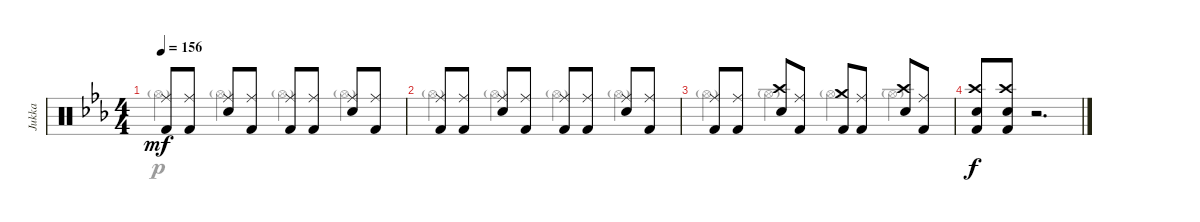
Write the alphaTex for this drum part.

\track ("Jukka" "Jukka") {instrument percussion}
\staff {score}
\articulation defaults
\voice
\ts (4 4)
\tempo 156
\clef neutral
\ks cminor
("Ride (middle)" "Kick (hit) 2").8{dy mf} ("Ride (middle)" "Kick (hit) 2").8 ("Ride (middle)" "Electric Snare (hit)").8 ("Ride (middle)" "Kick (hit) 2").8 ("Ride (middle)" "Kick (hit) 2").8 ("Ride (middle)" "Kick (hit) 2").8 ("Ride (middle)" "Electric Snare (hit)").8 ("Ride (middle)" "Kick (hit) 2").8 |
("Ride (middle)" "Kick (hit) 2").8 ("Ride (middle)" "Kick (hit) 2").8 ("Ride (middle)" "Electric Snare (hit)").8 ("Ride (middle)" "Kick (hit) 2").8 ("Ride (middle)" "Kick (hit) 2").8 ("Ride (middle)" "Kick (hit) 2").8 ("Ride (middle)" "Electric Snare (hit)").8 ("Ride (middle)" "Kick (hit) 2").8 |
("Ride (middle)" "Kick (hit) 2").8 ("Ride (middle)" "Kick (hit) 2").8 ("Crash high (hit)" "Electric Snare (hit)").8 ("Ride (middle)" "Kick (hit) 2").8 ("Crash medium (hit)" "Kick (hit) 2").8 ("Ride (middle)" "Kick (hit) 2").8 ("Crash high (hit)" "Electric Snare (hit)").8 ("Ride (middle)" "Kick (hit) 2").8 |
("Crash high (hit)" "Snare (hit) 2" "Kick (hit) 2").8{dy f} ("Crash high (hit)" "Snare (hit) 2" "Kick (hit) 2").8 r.2{d}
\voice
\clef neutral
\ottava regular
\simile none
\ks cminor "Hi-Hat (open)"{g}.4{dy p} "Hi-Hat (open)"{g}.4 "Hi-Hat (open)"{g}.4 "Hi-Hat (open)"{g}.4
|
"Hi-Hat (open)"{g}.4 "Hi-Hat (open)"{g}.4 "Hi-Hat (open)"{g}.4 "Hi-Hat (open)"{g}.4 |
"Hi-Hat (open)"{g}.4 "Hi-Hat (open)"{g}.4 "Hi-Hat (open)"{g}.4 "Hi-Hat (open)"{g}.4 |
